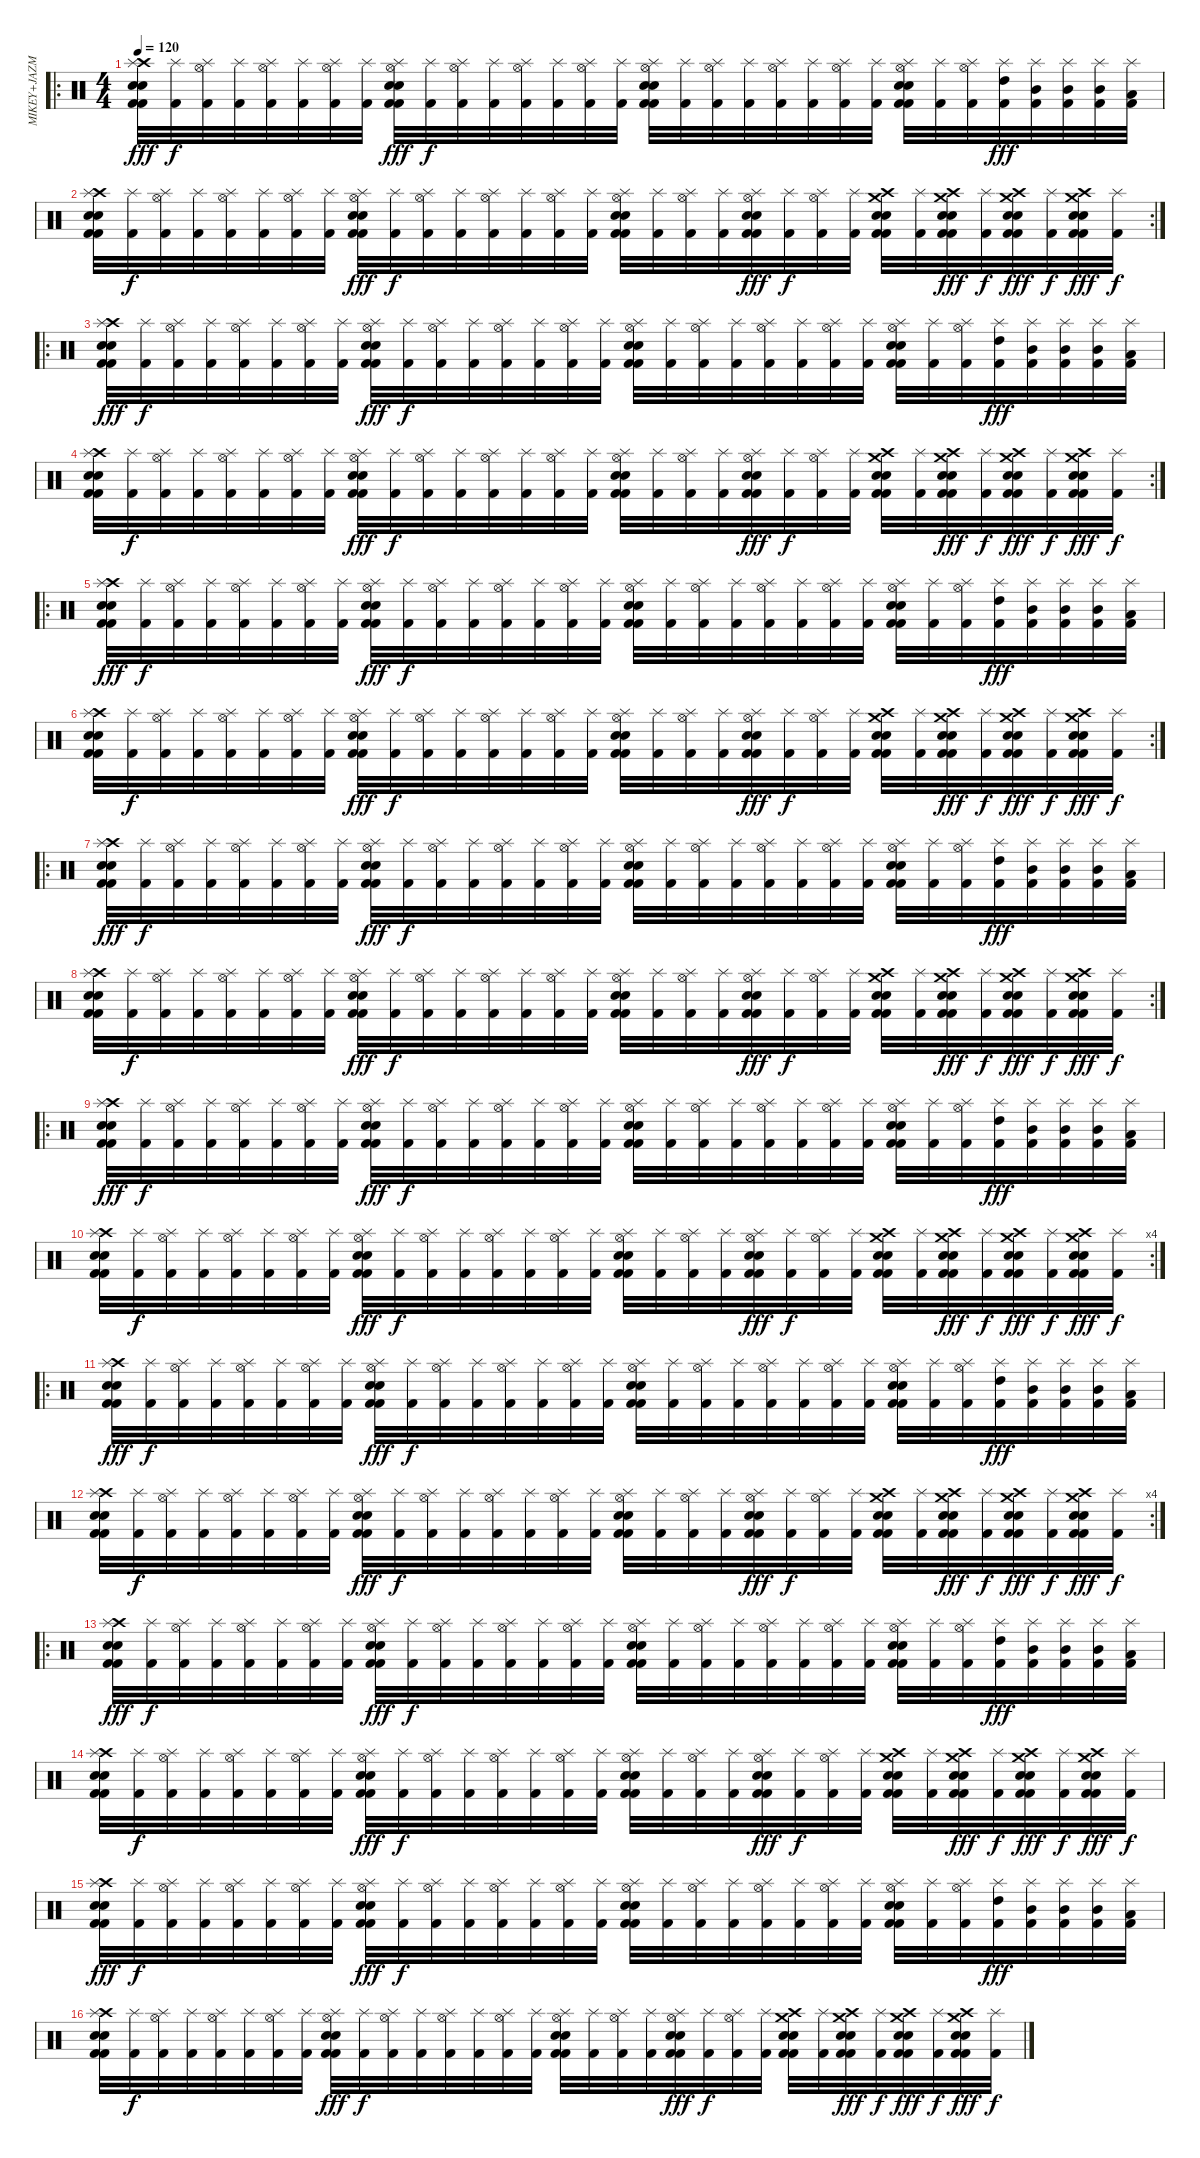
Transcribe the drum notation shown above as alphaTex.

\track ("MIKEY+JAZMO" "MIKEY+JAZM") {instrument percussion}
\staff {score}
\articulation defaults
\ro
\ts (4 4)
\tempo 120
\clef neutral
\ks c
("Crash high (hit)" "Splash (hit)" "Electric Snare (hit)" "Electric Snare (hit)" "Kick (hit) 2" "Kick (hit) 2").32{dy fff} ("Splash (hit)" "Kick (hit) 2").32{dy f} ("Hi-Hat (open)" "Splash (hit)" "Kick (hit) 2").32 ("Splash (hit)" "Kick (hit) 2").32 ("Hi-Hat (open)" "Splash (hit)" "Kick (hit) 2").32 ("Splash (hit)" "Kick (hit) 2").32 ("Hi-Hat (open)" "Splash (hit)" "Kick (hit) 2").32 ("Splash (hit)" "Kick (hit) 2").32 ("Hi-Hat (open)" "Splash (hit)" "Electric Snare (hit)" "Electric Snare (hit)" "Kick (hit) 2" "Kick (hit) 2").32{dy fff} ("Splash (hit)" "Kick (hit) 2").32{dy f} ("Hi-Hat (open)" "Splash (hit)" "Kick (hit) 2").32 ("Splash (hit)" "Kick (hit) 2").32 ("Hi-Hat (open)" "Splash (hit)" "Kick (hit) 2").32 ("Splash (hit)" "Kick (hit) 2").32 ("Hi-Hat (open)" "Splash (hit)" "Kick (hit) 2").32 ("Splash (hit)" "Kick (hit) 2").32 ("Hi-Hat (open)" "Splash (hit)" "Electric Snare (hit)" "Electric Snare (hit)" "Kick (hit) 2" "Kick (hit) 2").32 ("Splash (hit)" "Kick (hit) 2").32 ("Hi-Hat (open)" "Splash (hit)" "Kick (hit) 2").32 ("Splash (hit)" "Kick (hit) 2").32 ("Hi-Hat (open)" "Splash (hit)" "Kick (hit) 2").32 ("Splash (hit)" "Kick (hit) 2").32 ("Hi-Hat (open)" "Splash (hit)" "Kick (hit) 2").32 ("Splash (hit)" "Kick (hit) 2").32 ("Hi-Hat (open)" "Splash (hit)" "Electric Snare (hit)" "Electric Snare (hit)" "Kick (hit) 2" "Kick (hit) 2").32 ("Splash (hit)" "Kick (hit) 2").32 ("Hi-Hat (open)" "Splash (hit)" "Kick (hit) 2").32 ("High Tom (hit)" "Splash (hit)" "Kick (hit) 2").32{dy fff} ("Mid Tom (hit)" "Splash (hit)" "Kick (hit) 2").32 ("Mid Tom (hit)" "Splash (hit)" "Kick (hit) 2").32 ("Mid Tom (hit)" "Splash (hit)" "Kick (hit) 2").32 ("Low Tom (hit)" "Splash (hit)" "Kick (hit) 2").32 |
\rc 2
("Crash high (hit)" "Splash (hit)" "Electric Snare (hit)" "Electric Snare (hit)" "Kick (hit) 2" "Kick (hit) 2").32 ("Splash (hit)" "Kick (hit) 2").32{dy f} ("Hi-Hat (open)" "Splash (hit)" "Kick (hit) 2").32 ("Splash (hit)" "Kick (hit) 2").32 ("Hi-Hat (open)" "Splash (hit)" "Kick (hit) 2").32 ("Splash (hit)" "Kick (hit) 2").32 ("Hi-Hat (open)" "Splash (hit)" "Kick (hit) 2").32 ("Splash (hit)" "Kick (hit) 2").32 ("Hi-Hat (open)" "Splash (hit)" "Electric Snare (hit)" "Electric Snare (hit)" "Kick (hit) 2" "Kick (hit) 2").32{dy fff} ("Splash (hit)" "Kick (hit) 2").32{dy f} ("Hi-Hat (open)" "Splash (hit)" "Kick (hit) 2").32 ("Splash (hit)" "Kick (hit) 2").32 ("Hi-Hat (open)" "Splash (hit)" "Kick (hit) 2").32 ("Splash (hit)" "Kick (hit) 2").32 ("Hi-Hat (open)" "Splash (hit)" "Kick (hit) 2").32 ("Splash (hit)" "Kick (hit) 2").32 ("Hi-Hat (open)" "Splash (hit)" "Electric Snare (hit)" "Electric Snare (hit)" "Kick (hit) 2" "Kick (hit) 2").32 ("Splash (hit)" "Kick (hit) 2").32 ("Hi-Hat (open)" "Splash (hit)" "Kick (hit) 2").32 ("Splash (hit)" "Kick (hit) 2").32 ("Hi-Hat (open)" "Splash (hit)" "Electric Snare (hit)" "Electric Snare (hit)" "Kick (hit) 2" "Kick (hit) 2").32{dy fff} ("Splash (hit)" "Kick (hit) 2").32{dy f} ("Hi-Hat (open)" "Splash (hit)" "Kick (hit) 2").32 ("Splash (hit)" "Kick (hit) 2").32 ("Crash medium (hit)" "Crash high (hit)" "Electric Snare (hit)" "Electric Snare (hit)" "Kick (hit) 2" "Kick (hit) 2").32 ("Splash (hit)" "Kick (hit) 2").32 ("Crash medium (hit)" "Crash high (hit)" "Electric Snare (hit)" "Electric Snare (hit)" "Kick (hit) 2" "Kick (hit) 2").32{dy fff} ("Splash (hit)" "Kick (hit) 2").32{dy f} ("Crash medium (hit)" "Crash high (hit)" "Electric Snare (hit)" "Electric Snare (hit)" "Kick (hit) 2" "Kick (hit) 2").32{dy fff} ("Splash (hit)" "Kick (hit) 2").32{dy f} ("Crash medium (hit)" "Crash high (hit)" "Electric Snare (hit)" "Electric Snare (hit)" "Kick (hit) 2" "Kick (hit) 2").32{dy fff} ("Splash (hit)" "Kick (hit) 2").32{dy f} |
\ro
("Crash high (hit)" "Splash (hit)" "Electric Snare (hit)" "Electric Snare (hit)" "Kick (hit) 2" "Kick (hit) 2").32{dy fff} ("Splash (hit)" "Kick (hit) 2").32{dy f} ("Hi-Hat (open)" "Splash (hit)" "Kick (hit) 2").32 ("Splash (hit)" "Kick (hit) 2").32 ("Hi-Hat (open)" "Splash (hit)" "Kick (hit) 2").32 ("Splash (hit)" "Kick (hit) 2").32 ("Hi-Hat (open)" "Splash (hit)" "Kick (hit) 2").32 ("Splash (hit)" "Kick (hit) 2").32 ("Hi-Hat (open)" "Splash (hit)" "Electric Snare (hit)" "Electric Snare (hit)" "Kick (hit) 2" "Kick (hit) 2").32{dy fff} ("Splash (hit)" "Kick (hit) 2").32{dy f} ("Hi-Hat (open)" "Splash (hit)" "Kick (hit) 2").32 ("Splash (hit)" "Kick (hit) 2").32 ("Hi-Hat (open)" "Splash (hit)" "Kick (hit) 2").32 ("Splash (hit)" "Kick (hit) 2").32 ("Hi-Hat (open)" "Splash (hit)" "Kick (hit) 2").32 ("Splash (hit)" "Kick (hit) 2").32 ("Hi-Hat (open)" "Splash (hit)" "Electric Snare (hit)" "Electric Snare (hit)" "Kick (hit) 2" "Kick (hit) 2").32 ("Splash (hit)" "Kick (hit) 2").32 ("Hi-Hat (open)" "Splash (hit)" "Kick (hit) 2").32 ("Splash (hit)" "Kick (hit) 2").32 ("Hi-Hat (open)" "Splash (hit)" "Kick (hit) 2").32 ("Splash (hit)" "Kick (hit) 2").32 ("Hi-Hat (open)" "Splash (hit)" "Kick (hit) 2").32 ("Splash (hit)" "Kick (hit) 2").32 ("Hi-Hat (open)" "Splash (hit)" "Electric Snare (hit)" "Electric Snare (hit)" "Kick (hit) 2" "Kick (hit) 2").32 ("Splash (hit)" "Kick (hit) 2").32 ("Hi-Hat (open)" "Splash (hit)" "Kick (hit) 2").32 ("High Tom (hit)" "Splash (hit)" "Kick (hit) 2").32{dy fff} ("Mid Tom (hit)" "Splash (hit)" "Kick (hit) 2").32 ("Mid Tom (hit)" "Splash (hit)" "Kick (hit) 2").32 ("Mid Tom (hit)" "Splash (hit)" "Kick (hit) 2").32 ("Low Tom (hit)" "Splash (hit)" "Kick (hit) 2").32 |
\rc 2
("Crash high (hit)" "Splash (hit)" "Electric Snare (hit)" "Electric Snare (hit)" "Kick (hit) 2" "Kick (hit) 2").32 ("Splash (hit)" "Kick (hit) 2").32{dy f} ("Hi-Hat (open)" "Splash (hit)" "Kick (hit) 2").32 ("Splash (hit)" "Kick (hit) 2").32 ("Hi-Hat (open)" "Splash (hit)" "Kick (hit) 2").32 ("Splash (hit)" "Kick (hit) 2").32 ("Hi-Hat (open)" "Splash (hit)" "Kick (hit) 2").32 ("Splash (hit)" "Kick (hit) 2").32 ("Hi-Hat (open)" "Splash (hit)" "Electric Snare (hit)" "Electric Snare (hit)" "Kick (hit) 2" "Kick (hit) 2").32{dy fff} ("Splash (hit)" "Kick (hit) 2").32{dy f} ("Hi-Hat (open)" "Splash (hit)" "Kick (hit) 2").32 ("Splash (hit)" "Kick (hit) 2").32 ("Hi-Hat (open)" "Splash (hit)" "Kick (hit) 2").32 ("Splash (hit)" "Kick (hit) 2").32 ("Hi-Hat (open)" "Splash (hit)" "Kick (hit) 2").32 ("Splash (hit)" "Kick (hit) 2").32 ("Hi-Hat (open)" "Splash (hit)" "Electric Snare (hit)" "Electric Snare (hit)" "Kick (hit) 2" "Kick (hit) 2").32 ("Splash (hit)" "Kick (hit) 2").32 ("Hi-Hat (open)" "Splash (hit)" "Kick (hit) 2").32 ("Splash (hit)" "Kick (hit) 2").32 ("Hi-Hat (open)" "Splash (hit)" "Electric Snare (hit)" "Electric Snare (hit)" "Kick (hit) 2" "Kick (hit) 2").32{dy fff} ("Splash (hit)" "Kick (hit) 2").32{dy f} ("Hi-Hat (open)" "Splash (hit)" "Kick (hit) 2").32 ("Splash (hit)" "Kick (hit) 2").32 ("Crash medium (hit)" "Crash high (hit)" "Electric Snare (hit)" "Electric Snare (hit)" "Kick (hit) 2" "Kick (hit) 2").32 ("Splash (hit)" "Kick (hit) 2").32 ("Crash medium (hit)" "Crash high (hit)" "Electric Snare (hit)" "Electric Snare (hit)" "Kick (hit) 2" "Kick (hit) 2").32{dy fff} ("Splash (hit)" "Kick (hit) 2").32{dy f} ("Crash medium (hit)" "Crash high (hit)" "Electric Snare (hit)" "Electric Snare (hit)" "Kick (hit) 2" "Kick (hit) 2").32{dy fff} ("Splash (hit)" "Kick (hit) 2").32{dy f} ("Crash medium (hit)" "Crash high (hit)" "Electric Snare (hit)" "Electric Snare (hit)" "Kick (hit) 2" "Kick (hit) 2").32{dy fff} ("Splash (hit)" "Kick (hit) 2").32{dy f} |
\ro
("Crash high (hit)" "Splash (hit)" "Electric Snare (hit)" "Electric Snare (hit)" "Kick (hit) 2" "Kick (hit) 2").32{dy fff} ("Splash (hit)" "Kick (hit) 2").32{dy f} ("Hi-Hat (open)" "Splash (hit)" "Kick (hit) 2").32 ("Splash (hit)" "Kick (hit) 2").32 ("Hi-Hat (open)" "Splash (hit)" "Kick (hit) 2").32 ("Splash (hit)" "Kick (hit) 2").32 ("Hi-Hat (open)" "Splash (hit)" "Kick (hit) 2").32 ("Splash (hit)" "Kick (hit) 2").32 ("Hi-Hat (open)" "Splash (hit)" "Electric Snare (hit)" "Electric Snare (hit)" "Kick (hit) 2" "Kick (hit) 2").32{dy fff} ("Splash (hit)" "Kick (hit) 2").32{dy f} ("Hi-Hat (open)" "Splash (hit)" "Kick (hit) 2").32 ("Splash (hit)" "Kick (hit) 2").32 ("Hi-Hat (open)" "Splash (hit)" "Kick (hit) 2").32 ("Splash (hit)" "Kick (hit) 2").32 ("Hi-Hat (open)" "Splash (hit)" "Kick (hit) 2").32 ("Splash (hit)" "Kick (hit) 2").32 ("Hi-Hat (open)" "Splash (hit)" "Electric Snare (hit)" "Electric Snare (hit)" "Kick (hit) 2" "Kick (hit) 2").32 ("Splash (hit)" "Kick (hit) 2").32 ("Hi-Hat (open)" "Splash (hit)" "Kick (hit) 2").32 ("Splash (hit)" "Kick (hit) 2").32 ("Hi-Hat (open)" "Splash (hit)" "Kick (hit) 2").32 ("Splash (hit)" "Kick (hit) 2").32 ("Hi-Hat (open)" "Splash (hit)" "Kick (hit) 2").32 ("Splash (hit)" "Kick (hit) 2").32 ("Hi-Hat (open)" "Splash (hit)" "Electric Snare (hit)" "Electric Snare (hit)" "Kick (hit) 2" "Kick (hit) 2").32 ("Splash (hit)" "Kick (hit) 2").32 ("Hi-Hat (open)" "Splash (hit)" "Kick (hit) 2").32 ("High Tom (hit)" "Splash (hit)" "Kick (hit) 2").32{dy fff} ("Mid Tom (hit)" "Splash (hit)" "Kick (hit) 2").32 ("Mid Tom (hit)" "Splash (hit)" "Kick (hit) 2").32 ("Mid Tom (hit)" "Splash (hit)" "Kick (hit) 2").32 ("Low Tom (hit)" "Splash (hit)" "Kick (hit) 2").32 |
\rc 2
("Crash high (hit)" "Splash (hit)" "Electric Snare (hit)" "Electric Snare (hit)" "Kick (hit) 2" "Kick (hit) 2").32 ("Splash (hit)" "Kick (hit) 2").32{dy f} ("Hi-Hat (open)" "Splash (hit)" "Kick (hit) 2").32 ("Splash (hit)" "Kick (hit) 2").32 ("Hi-Hat (open)" "Splash (hit)" "Kick (hit) 2").32 ("Splash (hit)" "Kick (hit) 2").32 ("Hi-Hat (open)" "Splash (hit)" "Kick (hit) 2").32 ("Splash (hit)" "Kick (hit) 2").32 ("Hi-Hat (open)" "Splash (hit)" "Electric Snare (hit)" "Electric Snare (hit)" "Kick (hit) 2" "Kick (hit) 2").32{dy fff} ("Splash (hit)" "Kick (hit) 2").32{dy f} ("Hi-Hat (open)" "Splash (hit)" "Kick (hit) 2").32 ("Splash (hit)" "Kick (hit) 2").32 ("Hi-Hat (open)" "Splash (hit)" "Kick (hit) 2").32 ("Splash (hit)" "Kick (hit) 2").32 ("Hi-Hat (open)" "Splash (hit)" "Kick (hit) 2").32 ("Splash (hit)" "Kick (hit) 2").32 ("Hi-Hat (open)" "Splash (hit)" "Electric Snare (hit)" "Electric Snare (hit)" "Kick (hit) 2" "Kick (hit) 2").32 ("Splash (hit)" "Kick (hit) 2").32 ("Hi-Hat (open)" "Splash (hit)" "Kick (hit) 2").32 ("Splash (hit)" "Kick (hit) 2").32 ("Hi-Hat (open)" "Splash (hit)" "Electric Snare (hit)" "Electric Snare (hit)" "Kick (hit) 2" "Kick (hit) 2").32{dy fff} ("Splash (hit)" "Kick (hit) 2").32{dy f} ("Hi-Hat (open)" "Splash (hit)" "Kick (hit) 2").32 ("Splash (hit)" "Kick (hit) 2").32 ("Crash medium (hit)" "Crash high (hit)" "Electric Snare (hit)" "Electric Snare (hit)" "Kick (hit) 2" "Kick (hit) 2").32 ("Splash (hit)" "Kick (hit) 2").32 ("Crash medium (hit)" "Crash high (hit)" "Electric Snare (hit)" "Electric Snare (hit)" "Kick (hit) 2" "Kick (hit) 2").32{dy fff} ("Splash (hit)" "Kick (hit) 2").32{dy f} ("Crash medium (hit)" "Crash high (hit)" "Electric Snare (hit)" "Electric Snare (hit)" "Kick (hit) 2" "Kick (hit) 2").32{dy fff} ("Splash (hit)" "Kick (hit) 2").32{dy f} ("Crash medium (hit)" "Crash high (hit)" "Electric Snare (hit)" "Electric Snare (hit)" "Kick (hit) 2" "Kick (hit) 2").32{dy fff} ("Splash (hit)" "Kick (hit) 2").32{dy f} |
\ro
("Crash high (hit)" "Splash (hit)" "Electric Snare (hit)" "Electric Snare (hit)" "Kick (hit) 2" "Kick (hit) 2").32{dy fff} ("Splash (hit)" "Kick (hit) 2").32{dy f} ("Hi-Hat (open)" "Splash (hit)" "Kick (hit) 2").32 ("Splash (hit)" "Kick (hit) 2").32 ("Hi-Hat (open)" "Splash (hit)" "Kick (hit) 2").32 ("Splash (hit)" "Kick (hit) 2").32 ("Hi-Hat (open)" "Splash (hit)" "Kick (hit) 2").32 ("Splash (hit)" "Kick (hit) 2").32 ("Hi-Hat (open)" "Splash (hit)" "Electric Snare (hit)" "Electric Snare (hit)" "Kick (hit) 2" "Kick (hit) 2").32{dy fff} ("Splash (hit)" "Kick (hit) 2").32{dy f} ("Hi-Hat (open)" "Splash (hit)" "Kick (hit) 2").32 ("Splash (hit)" "Kick (hit) 2").32 ("Hi-Hat (open)" "Splash (hit)" "Kick (hit) 2").32 ("Splash (hit)" "Kick (hit) 2").32 ("Hi-Hat (open)" "Splash (hit)" "Kick (hit) 2").32 ("Splash (hit)" "Kick (hit) 2").32 ("Hi-Hat (open)" "Splash (hit)" "Electric Snare (hit)" "Electric Snare (hit)" "Kick (hit) 2" "Kick (hit) 2").32 ("Splash (hit)" "Kick (hit) 2").32 ("Hi-Hat (open)" "Splash (hit)" "Kick (hit) 2").32 ("Splash (hit)" "Kick (hit) 2").32 ("Hi-Hat (open)" "Splash (hit)" "Kick (hit) 2").32 ("Splash (hit)" "Kick (hit) 2").32 ("Hi-Hat (open)" "Splash (hit)" "Kick (hit) 2").32 ("Splash (hit)" "Kick (hit) 2").32 ("Hi-Hat (open)" "Splash (hit)" "Electric Snare (hit)" "Electric Snare (hit)" "Kick (hit) 2" "Kick (hit) 2").32 ("Splash (hit)" "Kick (hit) 2").32 ("Hi-Hat (open)" "Splash (hit)" "Kick (hit) 2").32 ("High Tom (hit)" "Splash (hit)" "Kick (hit) 2").32{dy fff} ("Mid Tom (hit)" "Splash (hit)" "Kick (hit) 2").32 ("Mid Tom (hit)" "Splash (hit)" "Kick (hit) 2").32 ("Mid Tom (hit)" "Splash (hit)" "Kick (hit) 2").32 ("Low Tom (hit)" "Splash (hit)" "Kick (hit) 2").32 |
\rc 2
("Crash high (hit)" "Splash (hit)" "Electric Snare (hit)" "Electric Snare (hit)" "Kick (hit) 2" "Kick (hit) 2").32 ("Splash (hit)" "Kick (hit) 2").32{dy f} ("Hi-Hat (open)" "Splash (hit)" "Kick (hit) 2").32 ("Splash (hit)" "Kick (hit) 2").32 ("Hi-Hat (open)" "Splash (hit)" "Kick (hit) 2").32 ("Splash (hit)" "Kick (hit) 2").32 ("Hi-Hat (open)" "Splash (hit)" "Kick (hit) 2").32 ("Splash (hit)" "Kick (hit) 2").32 ("Hi-Hat (open)" "Splash (hit)" "Electric Snare (hit)" "Electric Snare (hit)" "Kick (hit) 2" "Kick (hit) 2").32{dy fff} ("Splash (hit)" "Kick (hit) 2").32{dy f} ("Hi-Hat (open)" "Splash (hit)" "Kick (hit) 2").32 ("Splash (hit)" "Kick (hit) 2").32 ("Hi-Hat (open)" "Splash (hit)" "Kick (hit) 2").32 ("Splash (hit)" "Kick (hit) 2").32 ("Hi-Hat (open)" "Splash (hit)" "Kick (hit) 2").32 ("Splash (hit)" "Kick (hit) 2").32 ("Hi-Hat (open)" "Splash (hit)" "Electric Snare (hit)" "Electric Snare (hit)" "Kick (hit) 2" "Kick (hit) 2").32 ("Splash (hit)" "Kick (hit) 2").32 ("Hi-Hat (open)" "Splash (hit)" "Kick (hit) 2").32 ("Splash (hit)" "Kick (hit) 2").32 ("Hi-Hat (open)" "Splash (hit)" "Electric Snare (hit)" "Electric Snare (hit)" "Kick (hit) 2" "Kick (hit) 2").32{dy fff} ("Splash (hit)" "Kick (hit) 2").32{dy f} ("Hi-Hat (open)" "Splash (hit)" "Kick (hit) 2").32 ("Splash (hit)" "Kick (hit) 2").32 ("Crash medium (hit)" "Crash high (hit)" "Electric Snare (hit)" "Electric Snare (hit)" "Kick (hit) 2" "Kick (hit) 2").32 ("Splash (hit)" "Kick (hit) 2").32 ("Crash medium (hit)" "Crash high (hit)" "Electric Snare (hit)" "Electric Snare (hit)" "Kick (hit) 2" "Kick (hit) 2").32{dy fff} ("Splash (hit)" "Kick (hit) 2").32{dy f} ("Crash medium (hit)" "Crash high (hit)" "Electric Snare (hit)" "Electric Snare (hit)" "Kick (hit) 2" "Kick (hit) 2").32{dy fff} ("Splash (hit)" "Kick (hit) 2").32{dy f} ("Crash medium (hit)" "Crash high (hit)" "Electric Snare (hit)" "Electric Snare (hit)" "Kick (hit) 2" "Kick (hit) 2").32{dy fff} ("Splash (hit)" "Kick (hit) 2").32{dy f} |
\ro
("Crash high (hit)" "Splash (hit)" "Electric Snare (hit)" "Electric Snare (hit)" "Kick (hit) 2" "Kick (hit) 2").32{dy fff} ("Splash (hit)" "Kick (hit) 2").32{dy f} ("Hi-Hat (open)" "Splash (hit)" "Kick (hit) 2").32 ("Splash (hit)" "Kick (hit) 2").32 ("Hi-Hat (open)" "Splash (hit)" "Kick (hit) 2").32 ("Splash (hit)" "Kick (hit) 2").32 ("Hi-Hat (open)" "Splash (hit)" "Kick (hit) 2").32 ("Splash (hit)" "Kick (hit) 2").32 ("Hi-Hat (open)" "Splash (hit)" "Electric Snare (hit)" "Electric Snare (hit)" "Kick (hit) 2" "Kick (hit) 2").32{dy fff} ("Splash (hit)" "Kick (hit) 2").32{dy f} ("Hi-Hat (open)" "Splash (hit)" "Kick (hit) 2").32 ("Splash (hit)" "Kick (hit) 2").32 ("Hi-Hat (open)" "Splash (hit)" "Kick (hit) 2").32 ("Splash (hit)" "Kick (hit) 2").32 ("Hi-Hat (open)" "Splash (hit)" "Kick (hit) 2").32 ("Splash (hit)" "Kick (hit) 2").32 ("Hi-Hat (open)" "Splash (hit)" "Electric Snare (hit)" "Electric Snare (hit)" "Kick (hit) 2" "Kick (hit) 2").32 ("Splash (hit)" "Kick (hit) 2").32 ("Hi-Hat (open)" "Splash (hit)" "Kick (hit) 2").32 ("Splash (hit)" "Kick (hit) 2").32 ("Hi-Hat (open)" "Splash (hit)" "Kick (hit) 2").32 ("Splash (hit)" "Kick (hit) 2").32 ("Hi-Hat (open)" "Splash (hit)" "Kick (hit) 2").32 ("Splash (hit)" "Kick (hit) 2").32 ("Hi-Hat (open)" "Splash (hit)" "Electric Snare (hit)" "Electric Snare (hit)" "Kick (hit) 2" "Kick (hit) 2").32 ("Splash (hit)" "Kick (hit) 2").32 ("Hi-Hat (open)" "Splash (hit)" "Kick (hit) 2").32 ("High Tom (hit)" "Splash (hit)" "Kick (hit) 2").32{dy fff} ("Mid Tom (hit)" "Splash (hit)" "Kick (hit) 2").32 ("Mid Tom (hit)" "Splash (hit)" "Kick (hit) 2").32 ("Mid Tom (hit)" "Splash (hit)" "Kick (hit) 2").32 ("Low Tom (hit)" "Splash (hit)" "Kick (hit) 2").32 |
\rc 4
("Crash high (hit)" "Splash (hit)" "Electric Snare (hit)" "Electric Snare (hit)" "Kick (hit) 2" "Kick (hit) 2").32 ("Splash (hit)" "Kick (hit) 2").32{dy f} ("Hi-Hat (open)" "Splash (hit)" "Kick (hit) 2").32 ("Splash (hit)" "Kick (hit) 2").32 ("Hi-Hat (open)" "Splash (hit)" "Kick (hit) 2").32 ("Splash (hit)" "Kick (hit) 2").32 ("Hi-Hat (open)" "Splash (hit)" "Kick (hit) 2").32 ("Splash (hit)" "Kick (hit) 2").32 ("Hi-Hat (open)" "Splash (hit)" "Electric Snare (hit)" "Electric Snare (hit)" "Kick (hit) 2" "Kick (hit) 2").32{dy fff} ("Splash (hit)" "Kick (hit) 2").32{dy f} ("Hi-Hat (open)" "Splash (hit)" "Kick (hit) 2").32 ("Splash (hit)" "Kick (hit) 2").32 ("Hi-Hat (open)" "Splash (hit)" "Kick (hit) 2").32 ("Splash (hit)" "Kick (hit) 2").32 ("Hi-Hat (open)" "Splash (hit)" "Kick (hit) 2").32 ("Splash (hit)" "Kick (hit) 2").32 ("Hi-Hat (open)" "Splash (hit)" "Electric Snare (hit)" "Electric Snare (hit)" "Kick (hit) 2" "Kick (hit) 2").32 ("Splash (hit)" "Kick (hit) 2").32 ("Hi-Hat (open)" "Splash (hit)" "Kick (hit) 2").32 ("Splash (hit)" "Kick (hit) 2").32 ("Hi-Hat (open)" "Splash (hit)" "Electric Snare (hit)" "Electric Snare (hit)" "Kick (hit) 2" "Kick (hit) 2").32{dy fff} ("Splash (hit)" "Kick (hit) 2").32{dy f} ("Hi-Hat (open)" "Splash (hit)" "Kick (hit) 2").32 ("Splash (hit)" "Kick (hit) 2").32 ("Crash medium (hit)" "Crash high (hit)" "Electric Snare (hit)" "Electric Snare (hit)" "Kick (hit) 2" "Kick (hit) 2").32 ("Splash (hit)" "Kick (hit) 2").32 ("Crash medium (hit)" "Crash high (hit)" "Electric Snare (hit)" "Electric Snare (hit)" "Kick (hit) 2" "Kick (hit) 2").32{dy fff} ("Splash (hit)" "Kick (hit) 2").32{dy f} ("Crash medium (hit)" "Crash high (hit)" "Electric Snare (hit)" "Electric Snare (hit)" "Kick (hit) 2" "Kick (hit) 2").32{dy fff} ("Splash (hit)" "Kick (hit) 2").32{dy f} ("Crash medium (hit)" "Crash high (hit)" "Electric Snare (hit)" "Electric Snare (hit)" "Kick (hit) 2" "Kick (hit) 2").32{dy fff} ("Splash (hit)" "Kick (hit) 2").32{dy f} |
\ro
("Crash high (hit)" "Splash (hit)" "Electric Snare (hit)" "Electric Snare (hit)" "Kick (hit) 2" "Kick (hit) 2").32{dy fff} ("Splash (hit)" "Kick (hit) 2").32{dy f} ("Hi-Hat (open)" "Splash (hit)" "Kick (hit) 2").32 ("Splash (hit)" "Kick (hit) 2").32 ("Hi-Hat (open)" "Splash (hit)" "Kick (hit) 2").32 ("Splash (hit)" "Kick (hit) 2").32 ("Hi-Hat (open)" "Splash (hit)" "Kick (hit) 2").32 ("Splash (hit)" "Kick (hit) 2").32 ("Hi-Hat (open)" "Splash (hit)" "Electric Snare (hit)" "Electric Snare (hit)" "Kick (hit) 2" "Kick (hit) 2").32{dy fff} ("Splash (hit)" "Kick (hit) 2").32{dy f} ("Hi-Hat (open)" "Splash (hit)" "Kick (hit) 2").32 ("Splash (hit)" "Kick (hit) 2").32 ("Hi-Hat (open)" "Splash (hit)" "Kick (hit) 2").32 ("Splash (hit)" "Kick (hit) 2").32 ("Hi-Hat (open)" "Splash (hit)" "Kick (hit) 2").32 ("Splash (hit)" "Kick (hit) 2").32 ("Hi-Hat (open)" "Splash (hit)" "Electric Snare (hit)" "Electric Snare (hit)" "Kick (hit) 2" "Kick (hit) 2").32 ("Splash (hit)" "Kick (hit) 2").32 ("Hi-Hat (open)" "Splash (hit)" "Kick (hit) 2").32 ("Splash (hit)" "Kick (hit) 2").32 ("Hi-Hat (open)" "Splash (hit)" "Kick (hit) 2").32 ("Splash (hit)" "Kick (hit) 2").32 ("Hi-Hat (open)" "Splash (hit)" "Kick (hit) 2").32 ("Splash (hit)" "Kick (hit) 2").32 ("Hi-Hat (open)" "Splash (hit)" "Electric Snare (hit)" "Electric Snare (hit)" "Kick (hit) 2" "Kick (hit) 2").32 ("Splash (hit)" "Kick (hit) 2").32 ("Hi-Hat (open)" "Splash (hit)" "Kick (hit) 2").32 ("High Tom (hit)" "Splash (hit)" "Kick (hit) 2").32{dy fff} ("Mid Tom (hit)" "Splash (hit)" "Kick (hit) 2").32 ("Mid Tom (hit)" "Splash (hit)" "Kick (hit) 2").32 ("Mid Tom (hit)" "Splash (hit)" "Kick (hit) 2").32 ("Low Tom (hit)" "Splash (hit)" "Kick (hit) 2").32 |
\rc 4
("Crash high (hit)" "Splash (hit)" "Electric Snare (hit)" "Electric Snare (hit)" "Kick (hit) 2" "Kick (hit) 2").32 ("Splash (hit)" "Kick (hit) 2").32{dy f} ("Hi-Hat (open)" "Splash (hit)" "Kick (hit) 2").32 ("Splash (hit)" "Kick (hit) 2").32 ("Hi-Hat (open)" "Splash (hit)" "Kick (hit) 2").32 ("Splash (hit)" "Kick (hit) 2").32 ("Hi-Hat (open)" "Splash (hit)" "Kick (hit) 2").32 ("Splash (hit)" "Kick (hit) 2").32 ("Hi-Hat (open)" "Splash (hit)" "Electric Snare (hit)" "Electric Snare (hit)" "Kick (hit) 2" "Kick (hit) 2").32{dy fff} ("Splash (hit)" "Kick (hit) 2").32{dy f} ("Hi-Hat (open)" "Splash (hit)" "Kick (hit) 2").32 ("Splash (hit)" "Kick (hit) 2").32 ("Hi-Hat (open)" "Splash (hit)" "Kick (hit) 2").32 ("Splash (hit)" "Kick (hit) 2").32 ("Hi-Hat (open)" "Splash (hit)" "Kick (hit) 2").32 ("Splash (hit)" "Kick (hit) 2").32 ("Hi-Hat (open)" "Splash (hit)" "Electric Snare (hit)" "Electric Snare (hit)" "Kick (hit) 2" "Kick (hit) 2").32 ("Splash (hit)" "Kick (hit) 2").32 ("Hi-Hat (open)" "Splash (hit)" "Kick (hit) 2").32 ("Splash (hit)" "Kick (hit) 2").32 ("Hi-Hat (open)" "Splash (hit)" "Electric Snare (hit)" "Electric Snare (hit)" "Kick (hit) 2" "Kick (hit) 2").32{dy fff} ("Splash (hit)" "Kick (hit) 2").32{dy f} ("Hi-Hat (open)" "Splash (hit)" "Kick (hit) 2").32 ("Splash (hit)" "Kick (hit) 2").32 ("Crash medium (hit)" "Crash high (hit)" "Electric Snare (hit)" "Electric Snare (hit)" "Kick (hit) 2" "Kick (hit) 2").32 ("Splash (hit)" "Kick (hit) 2").32 ("Crash medium (hit)" "Crash high (hit)" "Electric Snare (hit)" "Electric Snare (hit)" "Kick (hit) 2" "Kick (hit) 2").32{dy fff} ("Splash (hit)" "Kick (hit) 2").32{dy f} ("Crash medium (hit)" "Crash high (hit)" "Electric Snare (hit)" "Electric Snare (hit)" "Kick (hit) 2" "Kick (hit) 2").32{dy fff} ("Splash (hit)" "Kick (hit) 2").32{dy f} ("Crash medium (hit)" "Crash high (hit)" "Electric Snare (hit)" "Electric Snare (hit)" "Kick (hit) 2" "Kick (hit) 2").32{dy fff} ("Splash (hit)" "Kick (hit) 2").32{dy f} |
\ro
("Crash high (hit)" "Splash (hit)" "Electric Snare (hit)" "Electric Snare (hit)" "Kick (hit) 2" "Kick (hit) 2").32{dy fff} ("Splash (hit)" "Kick (hit) 2").32{dy f} ("Hi-Hat (open)" "Splash (hit)" "Kick (hit) 2").32 ("Splash (hit)" "Kick (hit) 2").32 ("Hi-Hat (open)" "Splash (hit)" "Kick (hit) 2").32 ("Splash (hit)" "Kick (hit) 2").32 ("Hi-Hat (open)" "Splash (hit)" "Kick (hit) 2").32 ("Splash (hit)" "Kick (hit) 2").32 ("Hi-Hat (open)" "Splash (hit)" "Electric Snare (hit)" "Electric Snare (hit)" "Kick (hit) 2" "Kick (hit) 2").32{dy fff} ("Splash (hit)" "Kick (hit) 2").32{dy f} ("Hi-Hat (open)" "Splash (hit)" "Kick (hit) 2").32 ("Splash (hit)" "Kick (hit) 2").32 ("Hi-Hat (open)" "Splash (hit)" "Kick (hit) 2").32 ("Splash (hit)" "Kick (hit) 2").32 ("Hi-Hat (open)" "Splash (hit)" "Kick (hit) 2").32 ("Splash (hit)" "Kick (hit) 2").32 ("Hi-Hat (open)" "Splash (hit)" "Electric Snare (hit)" "Electric Snare (hit)" "Kick (hit) 2" "Kick (hit) 2").32 ("Splash (hit)" "Kick (hit) 2").32 ("Hi-Hat (open)" "Splash (hit)" "Kick (hit) 2").32 ("Splash (hit)" "Kick (hit) 2").32 ("Hi-Hat (open)" "Splash (hit)" "Kick (hit) 2").32 ("Splash (hit)" "Kick (hit) 2").32 ("Hi-Hat (open)" "Splash (hit)" "Kick (hit) 2").32 ("Splash (hit)" "Kick (hit) 2").32 ("Hi-Hat (open)" "Splash (hit)" "Electric Snare (hit)" "Electric Snare (hit)" "Kick (hit) 2" "Kick (hit) 2").32 ("Splash (hit)" "Kick (hit) 2").32 ("Hi-Hat (open)" "Splash (hit)" "Kick (hit) 2").32 ("High Tom (hit)" "Splash (hit)" "Kick (hit) 2").32{dy fff} ("Mid Tom (hit)" "Splash (hit)" "Kick (hit) 2").32 ("Mid Tom (hit)" "Splash (hit)" "Kick (hit) 2").32 ("Mid Tom (hit)" "Splash (hit)" "Kick (hit) 2").32 ("Low Tom (hit)" "Splash (hit)" "Kick (hit) 2").32 |
("Crash high (hit)" "Splash (hit)" "Electric Snare (hit)" "Electric Snare (hit)" "Kick (hit) 2" "Kick (hit) 2").32 ("Splash (hit)" "Kick (hit) 2").32{dy f} ("Hi-Hat (open)" "Splash (hit)" "Kick (hit) 2").32 ("Splash (hit)" "Kick (hit) 2").32 ("Hi-Hat (open)" "Splash (hit)" "Kick (hit) 2").32 ("Splash (hit)" "Kick (hit) 2").32 ("Hi-Hat (open)" "Splash (hit)" "Kick (hit) 2").32 ("Splash (hit)" "Kick (hit) 2").32 ("Hi-Hat (open)" "Splash (hit)" "Electric Snare (hit)" "Electric Snare (hit)" "Kick (hit) 2" "Kick (hit) 2").32{dy fff} ("Splash (hit)" "Kick (hit) 2").32{dy f} ("Hi-Hat (open)" "Splash (hit)" "Kick (hit) 2").32 ("Splash (hit)" "Kick (hit) 2").32 ("Hi-Hat (open)" "Splash (hit)" "Kick (hit) 2").32 ("Splash (hit)" "Kick (hit) 2").32 ("Hi-Hat (open)" "Splash (hit)" "Kick (hit) 2").32 ("Splash (hit)" "Kick (hit) 2").32 ("Hi-Hat (open)" "Splash (hit)" "Electric Snare (hit)" "Electric Snare (hit)" "Kick (hit) 2" "Kick (hit) 2").32 ("Splash (hit)" "Kick (hit) 2").32 ("Hi-Hat (open)" "Splash (hit)" "Kick (hit) 2").32 ("Splash (hit)" "Kick (hit) 2").32 ("Hi-Hat (open)" "Splash (hit)" "Electric Snare (hit)" "Electric Snare (hit)" "Kick (hit) 2" "Kick (hit) 2").32{dy fff} ("Splash (hit)" "Kick (hit) 2").32{dy f} ("Hi-Hat (open)" "Splash (hit)" "Kick (hit) 2").32 ("Splash (hit)" "Kick (hit) 2").32 ("Crash medium (hit)" "Crash high (hit)" "Electric Snare (hit)" "Electric Snare (hit)" "Kick (hit) 2" "Kick (hit) 2").32 ("Splash (hit)" "Kick (hit) 2").32 ("Crash medium (hit)" "Crash high (hit)" "Electric Snare (hit)" "Electric Snare (hit)" "Kick (hit) 2" "Kick (hit) 2").32{dy fff} ("Splash (hit)" "Kick (hit) 2").32{dy f} ("Crash medium (hit)" "Crash high (hit)" "Electric Snare (hit)" "Electric Snare (hit)" "Kick (hit) 2" "Kick (hit) 2").32{dy fff} ("Splash (hit)" "Kick (hit) 2").32{dy f} ("Crash medium (hit)" "Crash high (hit)" "Electric Snare (hit)" "Electric Snare (hit)" "Kick (hit) 2" "Kick (hit) 2").32{dy fff} ("Splash (hit)" "Kick (hit) 2").32{dy f} |
("Crash high (hit)" "Splash (hit)" "Electric Snare (hit)" "Electric Snare (hit)" "Kick (hit) 2" "Kick (hit) 2").32{dy fff} ("Splash (hit)" "Kick (hit) 2").32{dy f} ("Hi-Hat (open)" "Splash (hit)" "Kick (hit) 2").32 ("Splash (hit)" "Kick (hit) 2").32 ("Hi-Hat (open)" "Splash (hit)" "Kick (hit) 2").32 ("Splash (hit)" "Kick (hit) 2").32 ("Hi-Hat (open)" "Splash (hit)" "Kick (hit) 2").32 ("Splash (hit)" "Kick (hit) 2").32 ("Hi-Hat (open)" "Splash (hit)" "Electric Snare (hit)" "Electric Snare (hit)" "Kick (hit) 2" "Kick (hit) 2").32{dy fff} ("Splash (hit)" "Kick (hit) 2").32{dy f} ("Hi-Hat (open)" "Splash (hit)" "Kick (hit) 2").32 ("Splash (hit)" "Kick (hit) 2").32 ("Hi-Hat (open)" "Splash (hit)" "Kick (hit) 2").32 ("Splash (hit)" "Kick (hit) 2").32 ("Hi-Hat (open)" "Splash (hit)" "Kick (hit) 2").32 ("Splash (hit)" "Kick (hit) 2").32 ("Hi-Hat (open)" "Splash (hit)" "Electric Snare (hit)" "Electric Snare (hit)" "Kick (hit) 2" "Kick (hit) 2").32 ("Splash (hit)" "Kick (hit) 2").32 ("Hi-Hat (open)" "Splash (hit)" "Kick (hit) 2").32 ("Splash (hit)" "Kick (hit) 2").32 ("Hi-Hat (open)" "Splash (hit)" "Kick (hit) 2").32 ("Splash (hit)" "Kick (hit) 2").32 ("Hi-Hat (open)" "Splash (hit)" "Kick (hit) 2").32 ("Splash (hit)" "Kick (hit) 2").32 ("Hi-Hat (open)" "Splash (hit)" "Electric Snare (hit)" "Electric Snare (hit)" "Kick (hit) 2" "Kick (hit) 2").32 ("Splash (hit)" "Kick (hit) 2").32 ("Hi-Hat (open)" "Splash (hit)" "Kick (hit) 2").32 ("High Tom (hit)" "Splash (hit)" "Kick (hit) 2").32{dy fff} ("Mid Tom (hit)" "Splash (hit)" "Kick (hit) 2").32 ("Mid Tom (hit)" "Splash (hit)" "Kick (hit) 2").32 ("Mid Tom (hit)" "Splash (hit)" "Kick (hit) 2").32 ("Low Tom (hit)" "Splash (hit)" "Kick (hit) 2").32 |
("Crash high (hit)" "Splash (hit)" "Electric Snare (hit)" "Electric Snare (hit)" "Kick (hit) 2" "Kick (hit) 2").32 ("Splash (hit)" "Kick (hit) 2").32{dy f} ("Hi-Hat (open)" "Splash (hit)" "Kick (hit) 2").32 ("Splash (hit)" "Kick (hit) 2").32 ("Hi-Hat (open)" "Splash (hit)" "Kick (hit) 2").32 ("Splash (hit)" "Kick (hit) 2").32 ("Hi-Hat (open)" "Splash (hit)" "Kick (hit) 2").32 ("Splash (hit)" "Kick (hit) 2").32 ("Hi-Hat (open)" "Splash (hit)" "Electric Snare (hit)" "Electric Snare (hit)" "Kick (hit) 2" "Kick (hit) 2").32{dy fff} ("Splash (hit)" "Kick (hit) 2").32{dy f} ("Hi-Hat (open)" "Splash (hit)" "Kick (hit) 2").32 ("Splash (hit)" "Kick (hit) 2").32 ("Hi-Hat (open)" "Splash (hit)" "Kick (hit) 2").32 ("Splash (hit)" "Kick (hit) 2").32 ("Hi-Hat (open)" "Splash (hit)" "Kick (hit) 2").32 ("Splash (hit)" "Kick (hit) 2").32 ("Hi-Hat (open)" "Splash (hit)" "Electric Snare (hit)" "Electric Snare (hit)" "Kick (hit) 2" "Kick (hit) 2").32 ("Splash (hit)" "Kick (hit) 2").32 ("Hi-Hat (open)" "Splash (hit)" "Kick (hit) 2").32 ("Splash (hit)" "Kick (hit) 2").32 ("Hi-Hat (open)" "Splash (hit)" "Electric Snare (hit)" "Electric Snare (hit)" "Kick (hit) 2" "Kick (hit) 2").32{dy fff} ("Splash (hit)" "Kick (hit) 2").32{dy f} ("Hi-Hat (open)" "Splash (hit)" "Kick (hit) 2").32 ("Splash (hit)" "Kick (hit) 2").32 ("Crash medium (hit)" "Crash high (hit)" "Electric Snare (hit)" "Electric Snare (hit)" "Kick (hit) 2" "Kick (hit) 2").32 ("Splash (hit)" "Kick (hit) 2").32 ("Crash medium (hit)" "Crash high (hit)" "Electric Snare (hit)" "Electric Snare (hit)" "Kick (hit) 2" "Kick (hit) 2").32{dy fff} ("Splash (hit)" "Kick (hit) 2").32{dy f} ("Crash medium (hit)" "Crash high (hit)" "Electric Snare (hit)" "Electric Snare (hit)" "Kick (hit) 2" "Kick (hit) 2").32{dy fff} ("Splash (hit)" "Kick (hit) 2").32{dy f} ("Crash medium (hit)" "Crash high (hit)" "Electric Snare (hit)" "Electric Snare (hit)" "Kick (hit) 2" "Kick (hit) 2").32{dy fff} ("Splash (hit)" "Kick (hit) 2").32{dy f}
